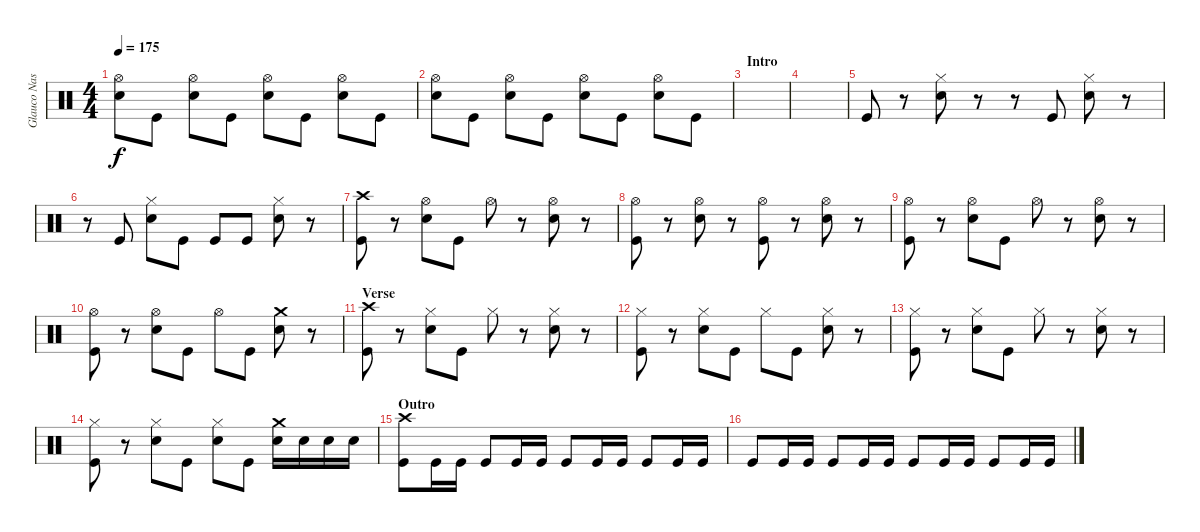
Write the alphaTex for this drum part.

\track ("Glauco Nastácia" "Glauco Nas") {instrument percussion}
\staff {score}
\articulation defaults
\ts (4 4)
\tempo 175
\clef neutral
\ks c
("Hi-Hat (open)" "Electric Snare (hit)").8{dy f} "Kick (hit)".8 ("Hi-Hat (open)" "Electric Snare (hit)").8 "Kick (hit)".8 ("Hi-Hat (open)" "Electric Snare (hit)").8 "Kick (hit)".8 ("Hi-Hat (open)" "Electric Snare (hit)").8 "Kick (hit)".8 |
("Hi-Hat (open)" "Electric Snare (hit)").8 "Kick (hit)".8 ("Hi-Hat (open)" "Electric Snare (hit)").8 "Kick (hit)".8 ("Hi-Hat (open)" "Electric Snare (hit)").8 "Kick (hit)".8 ("Hi-Hat (open)" "Electric Snare (hit)").8 "Kick (hit)".8 |
\section ("" "Intro")
|
|
"Kick (hit)".8 r.8 ("Hi-Hat (closed)" "Electric Snare (hit)").8 r.8 r.8 "Kick (hit)".8 ("Hi-Hat (closed)" "Electric Snare (hit)").8 r.8 |
r.8 "Kick (hit)".8 ("Hi-Hat (closed)" "Electric Snare (hit)").8 "Kick (hit)".8 "Kick (hit)".8 "Kick (hit)".8 ("Hi-Hat (closed)" "Electric Snare (hit)").8 r.8 |
("Crash high (hit)" "Kick (hit)").8 r.8 ("Hi-Hat (open)" "Electric Snare (hit)").8 "Kick (hit)".8 "Hi-Hat (open)".8 r.8 ("Hi-Hat (open)" "Electric Snare (hit)").8 r.8 |
("Hi-Hat (open)" "Kick (hit)").8 r.8 ("Hi-Hat (open)" "Electric Snare (hit)").8 r.8 ("Hi-Hat (open)" "Kick (hit)").8 r.8 ("Hi-Hat (open)" "Electric Snare (hit)").8 r.8 |
("Hi-Hat (open)" "Kick (hit)").8 r.8 ("Hi-Hat (open)" "Electric Snare (hit)").8 "Kick (hit)".8 "Hi-Hat (open)".8 r.8 ("Hi-Hat (open)" "Electric Snare (hit)").8 r.8 |
("Hi-Hat (open)" "Kick (hit)").8 r.8 ("Hi-Hat (open)" "Electric Snare (hit)").8 "Kick (hit)".8 "Hi-Hat (open)".8 "Kick (hit)".8 ("Crash medium (hit)" "Electric Snare (hit)").8 r.8 |
\section ("" "Verse")
("Crash high (hit)" "Kick (hit)").8 r.8 ("Hi-Hat (closed)" "Electric Snare (hit)").8 "Kick (hit)".8 "Hi-Hat (closed)".8 r.8 ("Hi-Hat (closed)" "Electric Snare (hit)").8 r.8 |
("Hi-Hat (closed)" "Kick (hit)").8 r.8 ("Hi-Hat (closed)" "Electric Snare (hit)").8 "Kick (hit)".8 "Hi-Hat (closed)".8 "Kick (hit)".8 ("Hi-Hat (closed)" "Electric Snare (hit)").8 r.8 |
("Hi-Hat (closed)" "Kick (hit)").8 r.8 ("Hi-Hat (closed)" "Electric Snare (hit)").8 "Kick (hit)".8 "Hi-Hat (closed)".8 r.8 ("Hi-Hat (closed)" "Electric Snare (hit)").8 r.8 |
("Hi-Hat (closed)" "Kick (hit)").8 r.8 ("Hi-Hat (closed)" "Electric Snare (hit)").8 "Kick (hit)".8 ("Hi-Hat (closed)" "Electric Snare (hit)").8 "Kick (hit)".8 ("Crash medium (hit)" "Electric Snare (hit)").16 "Electric Snare (hit)".16 "Electric Snare (hit)".16 "Electric Snare (hit)".16 |
\section ("" "Outro")
("Crash high (hit)" "Kick (hit)").8 "Kick (hit)".16 "Kick (hit)".16 "Kick (hit)".8 "Kick (hit)".16 "Kick (hit)".16 "Kick (hit)".8 "Kick (hit)".16 "Kick (hit)".16 "Kick (hit)".8 "Kick (hit)".16 "Kick (hit)".16 |
"Kick (hit)".8 "Kick (hit)".16 "Kick (hit)".16 "Kick (hit)".8 "Kick (hit)".16 "Kick (hit)".16 "Kick (hit)".8 "Kick (hit)".16 "Kick (hit)".16 "Kick (hit)".8 "Kick (hit)".16 "Kick (hit)".16
